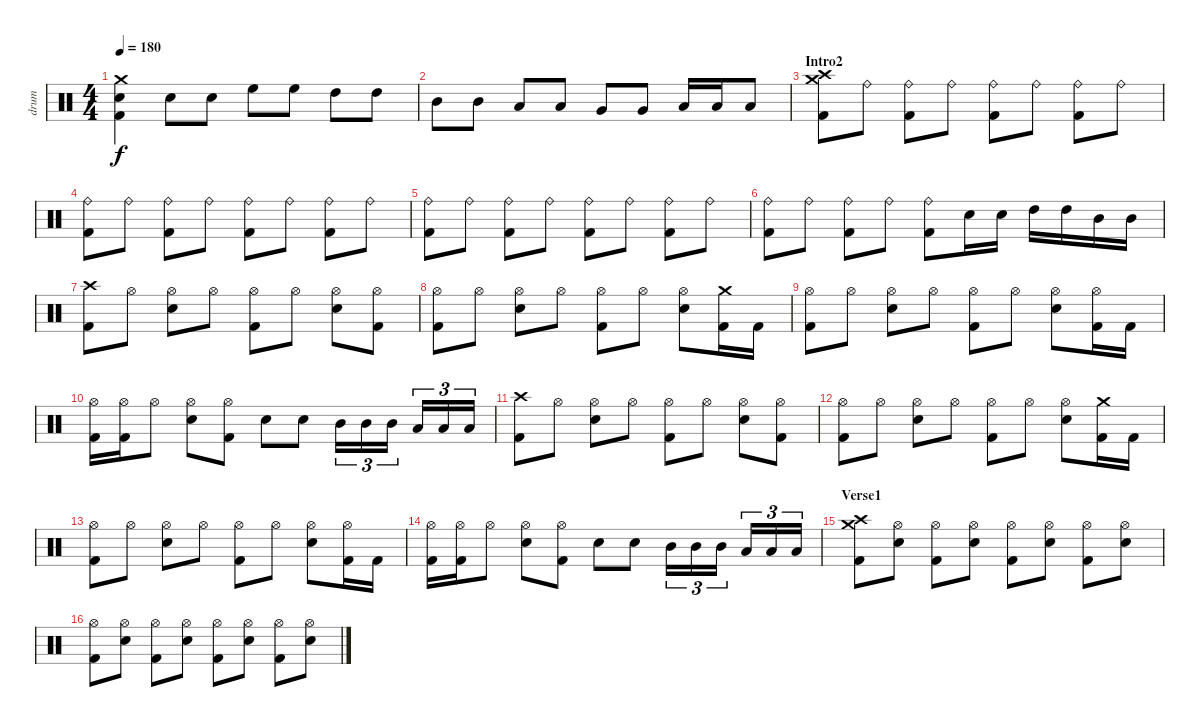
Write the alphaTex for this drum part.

\track ("drum" "drum") {instrument percussion}
\staff {score}
\articulation defaults
\ts (4 4)
\tempo 180
\clef neutral
\ks c
("Crash medium (hit)" "Electric Snare (hit)" "Kick (hit) 2").4{dy f} "Electric Snare (hit)".8{balance 16} "Electric Snare (hit)".8 "High Floor Tom (hit)".8{balance 12} "High Floor Tom (hit)".8 "High Tom (hit)".8{balance 10} "High Tom (hit)".8 |
"Mid Tom (hit)".8{balance 8} "Mid Tom (hit)".8 "Low Tom (hit)".8{balance 6} "Low Tom (hit)".8 "Very Low Tom (hit)".8{balance 4} "Very Low Tom (hit)".8 "Low Floor Tom (hit)".16{balance 0} "Low Floor Tom (hit)".16 "Low Floor Tom (hit)".8 |
\section ("" "Intro2")
("Crash high (hit)" "Crash medium (hit)" "Kick (hit) 2").8{balance 8} "Ride (bell)".8 ("Ride (bell)" "Kick (hit) 2").8 "Ride (bell)".8 ("Ride (bell)" "Kick (hit) 2").8 "Ride (bell)".8 ("Ride (bell)" "Kick (hit) 2").8 "Ride (bell)".8 |
("Ride (bell)" "Kick (hit) 2").8 "Ride (bell)".8 ("Ride (bell)" "Kick (hit) 2").8 "Ride (bell)".8 ("Ride (bell)" "Kick (hit) 2").8 "Ride (bell)".8 ("Ride (bell)" "Kick (hit) 2").8 "Ride (bell)".8 |
("Ride (bell)" "Kick (hit) 2").8 "Ride (bell)".8 ("Ride (bell)" "Kick (hit) 2").8 "Ride (bell)".8 ("Ride (bell)" "Kick (hit) 2").8 "Ride (bell)".8 ("Ride (bell)" "Kick (hit) 2").8 "Ride (bell)".8 |
("Ride (bell)" "Kick (hit) 2").8 "Ride (bell)".8 ("Ride (bell)" "Kick (hit) 2").8 "Ride (bell)".8 ("Ride (bell)" "Kick (hit) 2").8 "Electric Snare (hit)".16 "Electric Snare (hit)".16 "High Tom (hit)".16 "High Tom (hit)".16 "Mid Tom (hit)".16 "Mid Tom (hit)".16 |
("Crash high (hit)" "Kick (hit) 2").8 "Hi-Hat (open)".8 ("Hi-Hat (open)" "Electric Snare (hit)").8 "Hi-Hat (open)".8 ("Hi-Hat (open)" "Kick (hit) 2").8 "Hi-Hat (open)".8 ("Hi-Hat (open)" "Electric Snare (hit)").8 ("Hi-Hat (open)" "Kick (hit) 2").8 |
("Hi-Hat (open)" "Kick (hit) 2").8 "Hi-Hat (open)".8 ("Hi-Hat (open)" "Electric Snare (hit)").8 "Hi-Hat (open)".8 ("Hi-Hat (open)" "Kick (hit) 2").8 "Hi-Hat (open)".8 ("Hi-Hat (open)" "Electric Snare (hit)").8 ("Crash medium (hit)" "Kick (hit) 2").16 "Kick (hit) 2".16 |
("Hi-Hat (open)" "Kick (hit) 2").8 "Hi-Hat (open)".8 ("Hi-Hat (open)" "Electric Snare (hit)").8 "Hi-Hat (open)".8 ("Hi-Hat (open)" "Kick (hit) 2").8 "Hi-Hat (open)".8 ("Hi-Hat (open)" "Electric Snare (hit)").8 ("Hi-Hat (open)" "Kick (hit) 2").16 "Kick (hit) 2".16 |
("Hi-Hat (open)" "Kick (hit) 2").16 ("Hi-Hat (open)" "Kick (hit) 2").16 "Hi-Hat (open)".8 ("Hi-Hat (open)" "Electric Snare (hit)").8 ("Hi-Hat (open)" "Kick (hit) 2").8 "Electric Snare (hit)".8 "Electric Snare (hit)".8 "Mid Tom (hit)".16{tu (3 2)} "Mid Tom (hit)".16{tu (3 2)} "Mid Tom (hit)".16{tu (3 2)} "Low Tom (hit)".16{tu (3 2)} "Low Tom (hit)".16{tu (3 2)} "Low Tom (hit)".16{tu (3 2)} |
("Crash high (hit)" "Kick (hit) 2").8 "Hi-Hat (open)".8 ("Hi-Hat (open)" "Electric Snare (hit)").8 "Hi-Hat (open)".8 ("Hi-Hat (open)" "Kick (hit) 2").8 "Hi-Hat (open)".8 ("Hi-Hat (open)" "Electric Snare (hit)").8 ("Hi-Hat (open)" "Kick (hit) 2").8 |
("Hi-Hat (open)" "Kick (hit) 2").8 "Hi-Hat (open)".8 ("Hi-Hat (open)" "Electric Snare (hit)").8 "Hi-Hat (open)".8 ("Hi-Hat (open)" "Kick (hit) 2").8 "Hi-Hat (open)".8 ("Hi-Hat (open)" "Electric Snare (hit)").8 ("Crash medium (hit)" "Kick (hit) 2").16 "Kick (hit) 2".16 |
("Hi-Hat (open)" "Kick (hit) 2").8 "Hi-Hat (open)".8 ("Hi-Hat (open)" "Electric Snare (hit)").8 "Hi-Hat (open)".8 ("Hi-Hat (open)" "Kick (hit) 2").8 "Hi-Hat (open)".8 ("Hi-Hat (open)" "Electric Snare (hit)").8 ("Hi-Hat (open)" "Kick (hit) 2").16 "Kick (hit) 2".16 |
("Hi-Hat (open)" "Kick (hit) 2").16 ("Hi-Hat (open)" "Kick (hit) 2").16 "Hi-Hat (open)".8 ("Hi-Hat (open)" "Electric Snare (hit)").8 ("Hi-Hat (open)" "Kick (hit) 2").8 "Electric Snare (hit)".8 "Electric Snare (hit)".8 "Mid Tom (hit)".16{tu (3 2)} "Mid Tom (hit)".16{tu (3 2)} "Mid Tom (hit)".16{tu (3 2)} "Low Tom (hit)".16{tu (3 2)} "Low Tom (hit)".16{tu (3 2)} "Low Tom (hit)".16{tu (3 2)} |
\section ("" "Verse1")
("Crash high (hit)" "Crash medium (hit)" "Kick (hit) 2").8 ("Hi-Hat (open)" "Electric Snare (hit)").8 ("Hi-Hat (open)" "Kick (hit) 2").8 ("Hi-Hat (open)" "Electric Snare (hit)").8 ("Hi-Hat (open)" "Kick (hit) 2").8 ("Hi-Hat (open)" "Electric Snare (hit)").8 ("Hi-Hat (open)" "Kick (hit) 2").8 ("Hi-Hat (open)" "Electric Snare (hit)").8 |
("Hi-Hat (open)" "Kick (hit) 2").8 ("Hi-Hat (open)" "Electric Snare (hit)").8 ("Hi-Hat (open)" "Kick (hit) 2").8 ("Hi-Hat (open)" "Electric Snare (hit)").8 ("Hi-Hat (open)" "Kick (hit) 2").8 ("Hi-Hat (open)" "Electric Snare (hit)").8 ("Hi-Hat (open)" "Kick (hit) 2").8 ("Hi-Hat (open)" "Electric Snare (hit)").8
